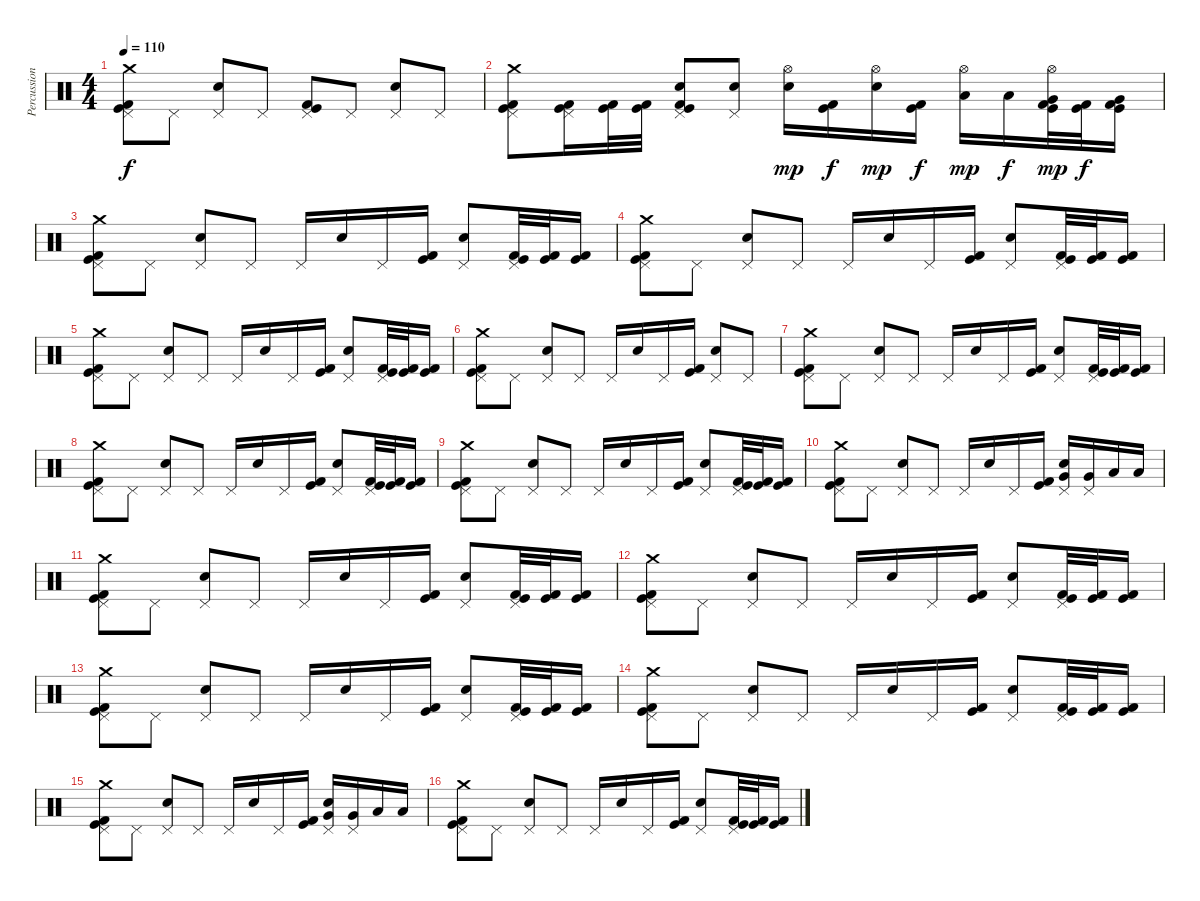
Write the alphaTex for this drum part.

\track ("Percussions" "Percussion") {instrument percussion}
\staff {score}
\articulation defaults
\ts (4 4)
\tempo 110
\clef neutral
\ks c
("Crash medium (hit)" "Pedal Hi-Hat (hit)" "Kick (hit)" "Kick (hit) 2").8{dy f} "Pedal Hi-Hat (hit)".8 ("Pedal Hi-Hat (hit)" "Electric Snare (hit)").8 "Pedal Hi-Hat (hit)".8 ("Pedal Hi-Hat (hit)" "Kick (hit)" "Kick (hit) 2").8 "Pedal Hi-Hat (hit)".8 ("Pedal Hi-Hat (hit)" "Electric Snare (hit)").8 "Pedal Hi-Hat (hit)".8 |
("Crash medium (hit)" "Pedal Hi-Hat (hit)" "Kick (hit)" "Kick (hit) 2").8 ("Pedal Hi-Hat (hit)" "Kick (hit)" "Kick (hit) 2").16 ("Kick (hit)" "Kick (hit) 2").32 ("Kick (hit)" "Kick (hit) 2").32 ("Pedal Hi-Hat (hit)" "Electric Snare (hit)" "Kick (hit)" "Kick (hit) 2").8 ("Pedal Hi-Hat (hit)" "Electric Snare (hit)").8 ("Hi-Hat (open)" "Electric Snare (hit)").16{dy mp} ("Kick (hit)" "Kick (hit) 2").16{dy f} ("Hi-Hat (open)" "Electric Snare (hit)").16{dy mp} ("Kick (hit)" "Kick (hit) 2").16{dy f} ("Hi-Hat (open)" "Low Tom (hit)").16{dy mp} "Low Tom (hit)".16{dy f} ("Hi-Hat (open)" "Very Low Tom (hit)" "Kick (hit)" "Kick (hit) 2").32{dy mp} ("Kick (hit)" "Kick (hit) 2").32{dy f} ("Very Low Tom (hit)" "Kick (hit)" "Kick (hit) 2").16 |
("Crash medium (hit)" "Pedal Hi-Hat (hit)" "Kick (hit)" "Kick (hit) 2").8 "Pedal Hi-Hat (hit)".8 ("Pedal Hi-Hat (hit)" "Electric Snare (hit)").8 "Pedal Hi-Hat (hit)".8 "Pedal Hi-Hat (hit)".16 "Electric Snare (hit)".16 "Pedal Hi-Hat (hit)".16 ("Kick (hit)" "Kick (hit) 2").16 ("Pedal Hi-Hat (hit)" "Electric Snare (hit)").8 ("Pedal Hi-Hat (hit)" "Kick (hit)" "Kick (hit) 2").32 ("Kick (hit)" "Kick (hit) 2").32 ("Kick (hit)" "Kick (hit) 2").16 |
("Crash medium (hit)" "Pedal Hi-Hat (hit)" "Kick (hit)" "Kick (hit) 2").8 "Pedal Hi-Hat (hit)".8 ("Pedal Hi-Hat (hit)" "Electric Snare (hit)").8 "Pedal Hi-Hat (hit)".8 "Pedal Hi-Hat (hit)".16 "Electric Snare (hit)".16 "Pedal Hi-Hat (hit)".16 ("Kick (hit)" "Kick (hit) 2").16 ("Pedal Hi-Hat (hit)" "Electric Snare (hit)").8 ("Pedal Hi-Hat (hit)" "Kick (hit)" "Kick (hit) 2").32 ("Kick (hit)" "Kick (hit) 2").32 ("Kick (hit)" "Kick (hit) 2").16 |
("Crash medium (hit)" "Pedal Hi-Hat (hit)" "Kick (hit)" "Kick (hit) 2").8 "Pedal Hi-Hat (hit)".8 ("Pedal Hi-Hat (hit)" "Electric Snare (hit)").8 "Pedal Hi-Hat (hit)".8 "Pedal Hi-Hat (hit)".16 "Electric Snare (hit)".16 "Pedal Hi-Hat (hit)".16 ("Kick (hit)" "Kick (hit) 2").16 ("Pedal Hi-Hat (hit)" "Electric Snare (hit)").8 ("Pedal Hi-Hat (hit)" "Kick (hit)" "Kick (hit) 2").32 ("Kick (hit)" "Kick (hit) 2").32 ("Kick (hit)" "Kick (hit) 2").16 |
("Crash medium (hit)" "Pedal Hi-Hat (hit)" "Kick (hit)" "Kick (hit) 2").8 "Pedal Hi-Hat (hit)".8 ("Pedal Hi-Hat (hit)" "Electric Snare (hit)").8 "Pedal Hi-Hat (hit)".8 "Pedal Hi-Hat (hit)".16 "Electric Snare (hit)".16 "Pedal Hi-Hat (hit)".16 ("Kick (hit)" "Kick (hit) 2").16 ("Pedal Hi-Hat (hit)" "Electric Snare (hit)").8 "Pedal Hi-Hat (hit)".8 |
("Crash medium (hit)" "Pedal Hi-Hat (hit)" "Kick (hit)" "Kick (hit) 2").8 "Pedal Hi-Hat (hit)".8 ("Pedal Hi-Hat (hit)" "Electric Snare (hit)").8 "Pedal Hi-Hat (hit)".8 "Pedal Hi-Hat (hit)".16 "Electric Snare (hit)".16 "Pedal Hi-Hat (hit)".16 ("Kick (hit)" "Kick (hit) 2").16 ("Pedal Hi-Hat (hit)" "Electric Snare (hit)").8 ("Pedal Hi-Hat (hit)" "Kick (hit)" "Kick (hit) 2").32 ("Kick (hit)" "Kick (hit) 2").32 ("Kick (hit)" "Kick (hit) 2").16 |
("Crash medium (hit)" "Pedal Hi-Hat (hit)" "Kick (hit)" "Kick (hit) 2").8 "Pedal Hi-Hat (hit)".8 ("Pedal Hi-Hat (hit)" "Electric Snare (hit)").8 "Pedal Hi-Hat (hit)".8 "Pedal Hi-Hat (hit)".16 "Electric Snare (hit)".16 "Pedal Hi-Hat (hit)".16 ("Kick (hit)" "Kick (hit) 2").16 ("Pedal Hi-Hat (hit)" "Electric Snare (hit)").8 ("Pedal Hi-Hat (hit)" "Kick (hit)" "Kick (hit) 2").32 ("Kick (hit)" "Kick (hit) 2").32 ("Kick (hit)" "Kick (hit) 2").16 |
("Crash medium (hit)" "Pedal Hi-Hat (hit)" "Kick (hit)" "Kick (hit) 2").8 "Pedal Hi-Hat (hit)".8 ("Pedal Hi-Hat (hit)" "Electric Snare (hit)").8 "Pedal Hi-Hat (hit)".8 "Pedal Hi-Hat (hit)".16 "Electric Snare (hit)".16 "Pedal Hi-Hat (hit)".16 ("Kick (hit)" "Kick (hit) 2").16 ("Pedal Hi-Hat (hit)" "Electric Snare (hit)").8 ("Pedal Hi-Hat (hit)" "Kick (hit)" "Kick (hit) 2").32 ("Kick (hit)" "Kick (hit) 2").32 ("Kick (hit)" "Kick (hit) 2").16 |
("Crash medium (hit)" "Pedal Hi-Hat (hit)" "Kick (hit)" "Kick (hit) 2").8 "Pedal Hi-Hat (hit)".8 ("Pedal Hi-Hat (hit)" "Electric Snare (hit)").8 "Pedal Hi-Hat (hit)".8 "Pedal Hi-Hat (hit)".16 "Electric Snare (hit)".16 "Pedal Hi-Hat (hit)".16 ("Kick (hit)" "Kick (hit) 2").16 ("Pedal Hi-Hat (hit)" "Electric Snare (hit)" "Very Low Tom (hit)").16 ("Pedal Hi-Hat (hit)" "Very Low Tom (hit)").16 "Low Floor Tom (hit)".16 "Low Floor Tom (hit)".16 |
("Crash medium (hit)" "Pedal Hi-Hat (hit)" "Kick (hit)" "Kick (hit) 2").8{volume 7} "Pedal Hi-Hat (hit)".8 ("Pedal Hi-Hat (hit)" "Electric Snare (hit)").8 "Pedal Hi-Hat (hit)".8 "Pedal Hi-Hat (hit)".16 "Electric Snare (hit)".16 "Pedal Hi-Hat (hit)".16 ("Kick (hit)" "Kick (hit) 2").16 ("Pedal Hi-Hat (hit)" "Electric Snare (hit)").8 ("Pedal Hi-Hat (hit)" "Kick (hit)" "Kick (hit) 2").32 ("Kick (hit)" "Kick (hit) 2").32 ("Kick (hit)" "Kick (hit) 2").16 |
("Crash medium (hit)" "Pedal Hi-Hat (hit)" "Kick (hit)" "Kick (hit) 2").8 "Pedal Hi-Hat (hit)".8 ("Pedal Hi-Hat (hit)" "Electric Snare (hit)").8 "Pedal Hi-Hat (hit)".8 "Pedal Hi-Hat (hit)".16 "Electric Snare (hit)".16 "Pedal Hi-Hat (hit)".16 ("Kick (hit)" "Kick (hit) 2").16 ("Pedal Hi-Hat (hit)" "Electric Snare (hit)").8 ("Pedal Hi-Hat (hit)" "Kick (hit)" "Kick (hit) 2").32 ("Kick (hit)" "Kick (hit) 2").32 ("Kick (hit)" "Kick (hit) 2").16 |
("Crash medium (hit)" "Pedal Hi-Hat (hit)" "Kick (hit)" "Kick (hit) 2").8 "Pedal Hi-Hat (hit)".8 ("Pedal Hi-Hat (hit)" "Electric Snare (hit)").8 "Pedal Hi-Hat (hit)".8 "Pedal Hi-Hat (hit)".16 "Electric Snare (hit)".16 "Pedal Hi-Hat (hit)".16 ("Kick (hit)" "Kick (hit) 2").16 ("Pedal Hi-Hat (hit)" "Electric Snare (hit)").8 ("Pedal Hi-Hat (hit)" "Kick (hit)" "Kick (hit) 2").32 ("Kick (hit)" "Kick (hit) 2").32 ("Kick (hit)" "Kick (hit) 2").16 |
("Crash medium (hit)" "Pedal Hi-Hat (hit)" "Kick (hit)" "Kick (hit) 2").8 "Pedal Hi-Hat (hit)".8 ("Pedal Hi-Hat (hit)" "Electric Snare (hit)").8 "Pedal Hi-Hat (hit)".8 "Pedal Hi-Hat (hit)".16 "Electric Snare (hit)".16 "Pedal Hi-Hat (hit)".16 ("Kick (hit)" "Kick (hit) 2").16 ("Pedal Hi-Hat (hit)" "Electric Snare (hit)").8 ("Pedal Hi-Hat (hit)" "Kick (hit)" "Kick (hit) 2").32 ("Kick (hit)" "Kick (hit) 2").32 ("Kick (hit)" "Kick (hit) 2").16 |
("Crash medium (hit)" "Pedal Hi-Hat (hit)" "Kick (hit)" "Kick (hit) 2").8{volume 0} "Pedal Hi-Hat (hit)".8 ("Pedal Hi-Hat (hit)" "Electric Snare (hit)").8 "Pedal Hi-Hat (hit)".8 "Pedal Hi-Hat (hit)".16 "Electric Snare (hit)".16 "Pedal Hi-Hat (hit)".16 ("Kick (hit)" "Kick (hit) 2").16 ("Pedal Hi-Hat (hit)" "Electric Snare (hit)" "Very Low Tom (hit)").16 ("Pedal Hi-Hat (hit)" "Very Low Tom (hit)").16 "Low Floor Tom (hit)".16 "Low Floor Tom (hit)".16 |
("Crash medium (hit)" "Pedal Hi-Hat (hit)" "Kick (hit)" "Kick (hit) 2").8 "Pedal Hi-Hat (hit)".8 ("Pedal Hi-Hat (hit)" "Electric Snare (hit)").8 "Pedal Hi-Hat (hit)".8 "Pedal Hi-Hat (hit)".16 "Electric Snare (hit)".16 "Pedal Hi-Hat (hit)".16 ("Kick (hit)" "Kick (hit) 2").16 ("Pedal Hi-Hat (hit)" "Electric Snare (hit)").8 ("Pedal Hi-Hat (hit)" "Kick (hit)" "Kick (hit) 2").32 ("Kick (hit)" "Kick (hit) 2").32 ("Kick (hit)" "Kick (hit) 2").16
